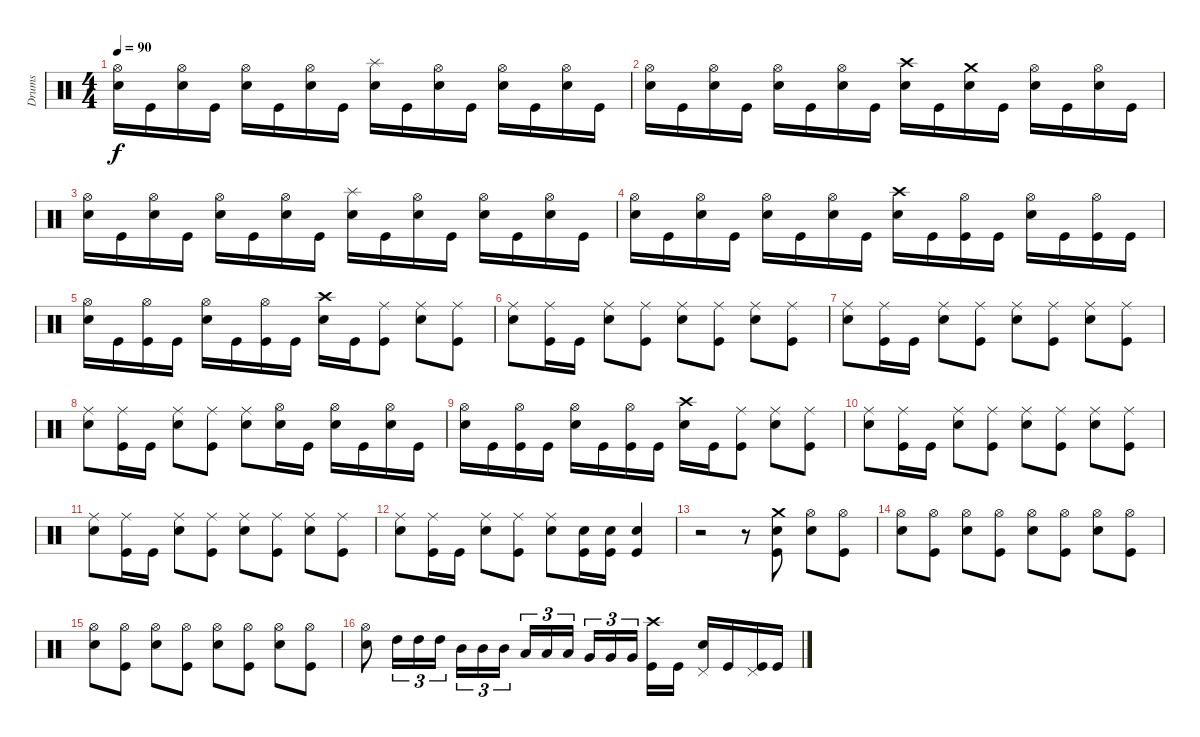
\track ("Drums" "Drums") {instrument percussion}
\staff {score}
\articulation defaults
\ts (4 4)
\tempo 90
\clef neutral
\ks c
("Hi-Hat (open)" "Electric Snare (hit)").16{dy f} "Kick (hit)".16 ("Hi-Hat (open)" "Electric Snare (hit)").16 "Kick (hit)".16 ("Hi-Hat (open)" "Electric Snare (hit)").16 "Kick (hit)".16 ("Hi-Hat (open)" "Electric Snare (hit)").16 "Kick (hit)".16 ("Splash (hit)" "Electric Snare (hit)").16 "Kick (hit)".16 ("Hi-Hat (open)" "Electric Snare (hit)").16 "Kick (hit)".16 ("Hi-Hat (open)" "Electric Snare (hit)").16 "Kick (hit)".16 ("Hi-Hat (open)" "Electric Snare (hit)").16 "Kick (hit)".16 |
("Hi-Hat (open)" "Electric Snare (hit)").16 "Kick (hit)".16 ("Hi-Hat (open)" "Electric Snare (hit)").16 "Kick (hit)".16 ("Hi-Hat (open)" "Electric Snare (hit)").16 "Kick (hit)".16 ("Hi-Hat (open)" "Electric Snare (hit)").16 "Kick (hit)".16 ("Crash high (hit)" "Electric Snare (hit)").16 "Kick (hit)".16 ("Crash medium (hit)" "Electric Snare (hit)").16 "Kick (hit)".16 ("Hi-Hat (open)" "Electric Snare (hit)").16 "Kick (hit)".16 ("Hi-Hat (open)" "Electric Snare (hit)").16 "Kick (hit)".16 |
("Hi-Hat (open)" "Electric Snare (hit)").16 "Kick (hit)".16 ("Hi-Hat (open)" "Electric Snare (hit)").16 "Kick (hit)".16 ("Hi-Hat (open)" "Electric Snare (hit)").16 "Kick (hit)".16 ("Hi-Hat (open)" "Electric Snare (hit)").16 "Kick (hit)".16 ("Splash (hit)" "Electric Snare (hit)").16 "Kick (hit)".16 ("Hi-Hat (open)" "Electric Snare (hit)").16 "Kick (hit)".16 ("Hi-Hat (open)" "Electric Snare (hit)").16 "Kick (hit)".16 ("Hi-Hat (open)" "Electric Snare (hit)").16 "Kick (hit)".16 |
("Hi-Hat (open)" "Electric Snare (hit)").16 "Kick (hit)".16 ("Hi-Hat (open)" "Electric Snare (hit)").16 "Kick (hit)".16 ("Hi-Hat (open)" "Electric Snare (hit)").16 "Kick (hit)".16 ("Hi-Hat (open)" "Electric Snare (hit)").16 "Kick (hit)".16 ("Crash high (hit)" "Electric Snare (hit)").16 "Kick (hit)".16 ("Hi-Hat (open)" "Kick (hit)").16 "Kick (hit)".16 ("Hi-Hat (open)" "Electric Snare (hit)").16 "Kick (hit)".16 ("Hi-Hat (open)" "Kick (hit)").16 "Kick (hit)".16 |
("Hi-Hat (open)" "Electric Snare (hit)").16 "Kick (hit)".16 ("Hi-Hat (open)" "Kick (hit)").16 "Kick (hit)".16 ("Hi-Hat (open)" "Electric Snare (hit)").16 "Kick (hit)".16 ("Hi-Hat (open)" "Kick (hit)").16 "Kick (hit)".16 ("Crash high (hit)" "Electric Snare (hit)").16 "Kick (hit)".16 ("Ride (middle)" "Kick (hit)").8 ("Ride (middle)" "Electric Snare (hit)").8 ("Ride (middle)" "Kick (hit)").8 |
("Ride (middle)" "Electric Snare (hit)").8 ("Ride (middle)" "Kick (hit)").16 "Kick (hit)".16 ("Ride (middle)" "Electric Snare (hit)").8 ("Ride (middle)" "Kick (hit)").8 ("Ride (middle)" "Electric Snare (hit)").8 ("Ride (middle)" "Kick (hit)").8 ("Ride (middle)" "Electric Snare (hit)").8 ("Ride (middle)" "Kick (hit)").8 |
("Ride (middle)" "Electric Snare (hit)").8 ("Ride (middle)" "Kick (hit)").16 "Kick (hit)".16 ("Ride (middle)" "Electric Snare (hit)").8 ("Ride (middle)" "Kick (hit)").8 ("Ride (middle)" "Electric Snare (hit)").8 ("Ride (middle)" "Kick (hit)").8 ("Ride (middle)" "Electric Snare (hit)").8 ("Ride (middle)" "Kick (hit)").8 |
("Ride (middle)" "Electric Snare (hit)").8 ("Ride (middle)" "Kick (hit)").16 "Kick (hit)".16 ("Ride (middle)" "Electric Snare (hit)").8 ("Ride (middle)" "Kick (hit)").8 ("Ride (middle)" "Electric Snare (hit)").8 ("Hi-Hat (open)" "Electric Snare (hit)").16 "Kick (hit)".16 ("Hi-Hat (open)" "Electric Snare (hit)").16 "Kick (hit)".16 ("Hi-Hat (open)" "Electric Snare (hit)").16 "Kick (hit)".16 |
("Hi-Hat (open)" "Electric Snare (hit)").16 "Kick (hit)".16 ("Hi-Hat (open)" "Kick (hit)").16 "Kick (hit)".16 ("Hi-Hat (open)" "Electric Snare (hit)").16 "Kick (hit)".16 ("Hi-Hat (open)" "Kick (hit)").16 "Kick (hit)".16 ("Crash high (hit)" "Electric Snare (hit)").16 "Kick (hit)".16 ("Ride (middle)" "Kick (hit)").8 ("Ride (middle)" "Electric Snare (hit)").8 ("Ride (middle)" "Kick (hit)").8 |
("Ride (middle)" "Electric Snare (hit)").8 ("Ride (middle)" "Kick (hit)").16 "Kick (hit)".16 ("Ride (middle)" "Electric Snare (hit)").8 ("Ride (middle)" "Kick (hit)").8 ("Ride (middle)" "Electric Snare (hit)").8 ("Ride (middle)" "Kick (hit)").8 ("Ride (middle)" "Electric Snare (hit)").8 ("Ride (middle)" "Kick (hit)").8 |
("Ride (middle)" "Electric Snare (hit)").8 ("Ride (middle)" "Kick (hit)").16 "Kick (hit)".16 ("Ride (middle)" "Electric Snare (hit)").8 ("Ride (middle)" "Kick (hit)").8 ("Ride (middle)" "Electric Snare (hit)").8 ("Ride (middle)" "Kick (hit)").8 ("Ride (middle)" "Electric Snare (hit)").8 ("Ride (middle)" "Kick (hit)").8 |
("Ride (middle)" "Electric Snare (hit)").8 ("Ride (middle)" "Kick (hit)").16 "Kick (hit)".16 ("Ride (middle)" "Electric Snare (hit)").8 ("Ride (middle)" "Kick (hit)").8 ("Ride (middle)" "Electric Snare (hit)").8 ("Electric Snare (hit)" "Kick (hit)").16 ("Electric Snare (hit)" "Kick (hit)").16 ("Electric Snare (hit)" "Kick (hit)").4 |
r.2 r.8 ("Crash medium (hit)" "Electric Snare (hit)" "Kick (hit)").8 ("Hi-Hat (open)" "Electric Snare (hit)").8 ("Hi-Hat (open)" "Kick (hit)").8 |
("Hi-Hat (open)" "Electric Snare (hit)").8 ("Hi-Hat (open)" "Kick (hit)").8 ("Hi-Hat (open)" "Electric Snare (hit)").8 ("Hi-Hat (open)" "Kick (hit)").8 ("Hi-Hat (open)" "Electric Snare (hit)").8 ("Hi-Hat (open)" "Kick (hit)").8 ("Hi-Hat (open)" "Electric Snare (hit)").8 ("Hi-Hat (open)" "Kick (hit)").8 |
("Hi-Hat (open)" "Electric Snare (hit)").8 ("Hi-Hat (open)" "Kick (hit)").8 ("Hi-Hat (open)" "Electric Snare (hit)").8 ("Hi-Hat (open)" "Kick (hit)").8 ("Hi-Hat (open)" "Electric Snare (hit)").8 ("Hi-Hat (open)" "Kick (hit)").8 ("Hi-Hat (open)" "Electric Snare (hit)").8 ("Hi-Hat (open)" "Kick (hit)").8 |
("Hi-Hat (open)" "Electric Snare (hit)").8 "High Tom (hit)".16{tu (3 2)} "High Tom (hit)".16{tu (3 2)} "High Tom (hit)".16{tu (3 2)} "Mid Tom (hit)".16{tu (3 2)} "Mid Tom (hit)".16{tu (3 2)} "Mid Tom (hit)".16{tu (3 2) beam splitsecondary} "Low Tom (hit)".16{tu (3 2)} "Low Tom (hit)".16{tu (3 2)} "Low Tom (hit)".16{tu (3 2)} "Very Low Tom (hit)".16{tu (3 2)} "Very Low Tom (hit)".16{tu (3 2)} "Very Low Tom (hit)".16{tu (3 2) beam splitsecondary} ("Crash high (hit)" "Kick (hit)").16 "Kick (hit)".16 ("Pedal Hi-Hat (hit)" "Electric Snare (hit)").16 "Kick (hit)".16 ("Pedal Hi-Hat (hit)" "Kick (hit)").16 "Kick (hit)".16
